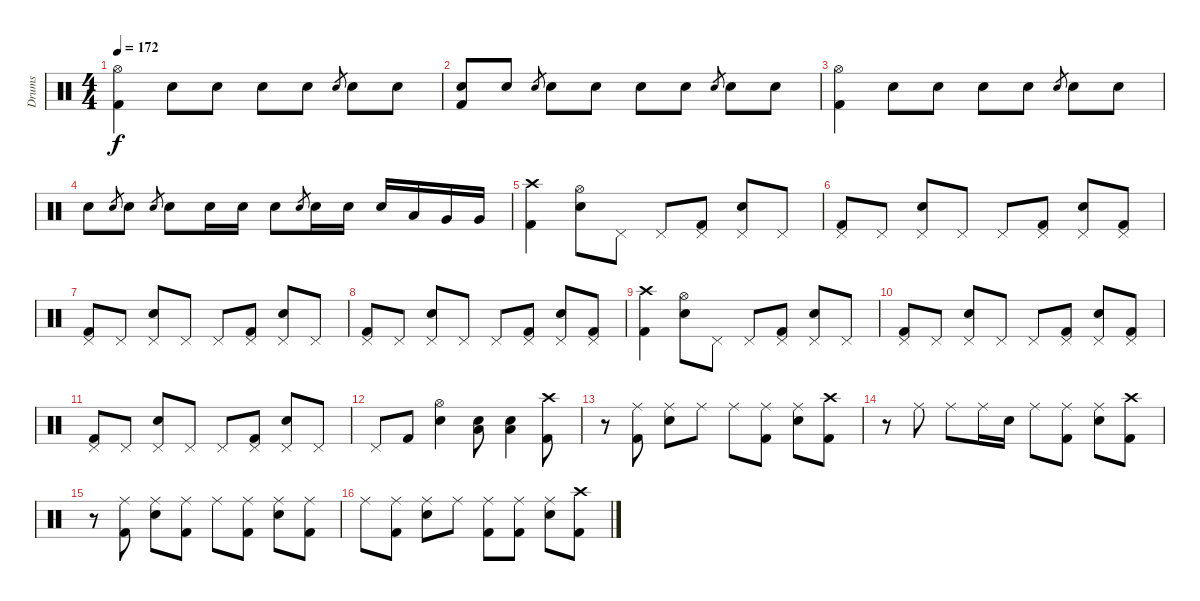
\track ("Drums" "Drums") {instrument percussion}
\staff {score}
\articulation defaults
\ts (4 4)
\tempo 172
\clef neutral
\ks c
("Hi-Hat (open)" "Kick (hit) 2").4{dy f} "Electric Snare (hit)".8 "Electric Snare (hit)".8 "Electric Snare (hit)".8 "Electric Snare (hit)".8 "Electric Snare (hit)".8{gr} "Electric Snare (hit)".8 "Electric Snare (hit)".8 |
("Electric Snare (hit)" "Kick (hit) 2").8 "Electric Snare (hit)".8 "Electric Snare (hit)".8{gr} "Electric Snare (hit)".8 "Electric Snare (hit)".8 "Electric Snare (hit)".8 "Electric Snare (hit)".8 "Electric Snare (hit)".8{gr} "Electric Snare (hit)".8 "Electric Snare (hit)".8 |
("Hi-Hat (open)" "Kick (hit) 2").4 "Electric Snare (hit)".8 "Electric Snare (hit)".8 "Electric Snare (hit)".8 "Electric Snare (hit)".8 "Electric Snare (hit)".8{gr} "Electric Snare (hit)".8 "Electric Snare (hit)".8 |
"Electric Snare (hit)".8 "Electric Snare (hit)".8{gr} "Electric Snare (hit)".8 "Electric Snare (hit)".8{gr} "Electric Snare (hit)".8 "Electric Snare (hit)".16 "Electric Snare (hit)".16 "Electric Snare (hit)".8 "Electric Snare (hit)".8{gr} "Electric Snare (hit)".16 "Electric Snare (hit)".16 "Electric Snare (hit)".16 "Low Tom (hit)".16 "Very Low Tom (hit)".16 "Very Low Tom (hit)".16 |
("Crash high (hit)" "Kick (hit) 2").4 ("Hi-Hat (open)" "Electric Snare (hit)").8 "Pedal Hi-Hat (hit)".8 "Pedal Hi-Hat (hit)".8 ("Pedal Hi-Hat (hit)" "Kick (hit) 2").8 ("Pedal Hi-Hat (hit)" "Electric Snare (hit)").8 "Pedal Hi-Hat (hit)".8 |
("Pedal Hi-Hat (hit)" "Kick (hit) 2").8 "Pedal Hi-Hat (hit)".8 ("Pedal Hi-Hat (hit)" "Electric Snare (hit)").8 "Pedal Hi-Hat (hit)".8 "Pedal Hi-Hat (hit)".8 ("Pedal Hi-Hat (hit)" "Kick (hit) 2").8 ("Pedal Hi-Hat (hit)" "Electric Snare (hit)").8 ("Pedal Hi-Hat (hit)" "Kick (hit) 2").8 |
("Pedal Hi-Hat (hit)" "Kick (hit) 2").8 "Pedal Hi-Hat (hit)".8 ("Pedal Hi-Hat (hit)" "Electric Snare (hit)").8 "Pedal Hi-Hat (hit)".8 "Pedal Hi-Hat (hit)".8 ("Pedal Hi-Hat (hit)" "Kick (hit) 2").8 ("Pedal Hi-Hat (hit)" "Electric Snare (hit)").8 "Pedal Hi-Hat (hit)".8 |
("Pedal Hi-Hat (hit)" "Kick (hit) 2").8 "Pedal Hi-Hat (hit)".8 ("Pedal Hi-Hat (hit)" "Electric Snare (hit)").8 "Pedal Hi-Hat (hit)".8 "Pedal Hi-Hat (hit)".8 ("Pedal Hi-Hat (hit)" "Kick (hit) 2").8 ("Pedal Hi-Hat (hit)" "Electric Snare (hit)").8 ("Pedal Hi-Hat (hit)" "Kick (hit) 2").8 |
("Crash high (hit)" "Kick (hit) 2").4 ("Hi-Hat (open)" "Electric Snare (hit)").8 "Pedal Hi-Hat (hit)".8 "Pedal Hi-Hat (hit)".8 ("Pedal Hi-Hat (hit)" "Kick (hit) 2").8 ("Pedal Hi-Hat (hit)" "Electric Snare (hit)").8 "Pedal Hi-Hat (hit)".8 |
("Pedal Hi-Hat (hit)" "Kick (hit) 2").8 "Pedal Hi-Hat (hit)".8 ("Pedal Hi-Hat (hit)" "Electric Snare (hit)").8 "Pedal Hi-Hat (hit)".8 "Pedal Hi-Hat (hit)".8 ("Pedal Hi-Hat (hit)" "Kick (hit) 2").8 ("Pedal Hi-Hat (hit)" "Electric Snare (hit)").8 ("Pedal Hi-Hat (hit)" "Kick (hit) 2").8 |
("Pedal Hi-Hat (hit)" "Kick (hit) 2").8 "Pedal Hi-Hat (hit)".8 ("Pedal Hi-Hat (hit)" "Electric Snare (hit)").8 "Pedal Hi-Hat (hit)".8 "Pedal Hi-Hat (hit)".8 ("Pedal Hi-Hat (hit)" "Kick (hit) 2").8 ("Pedal Hi-Hat (hit)" "Electric Snare (hit)").8 "Pedal Hi-Hat (hit)".8 |
"Pedal Hi-Hat (hit)".8 "Kick (hit) 2".8 ("Hi-Hat (open)" "Electric Snare (hit)").4 ("Low Tom (hit)" "Electric Snare (hit)").8 ("Low Tom (hit)" "Electric Snare (hit)").4 ("Crash high (hit)" "Kick (hit) 2").8 |
r.8 ("Ride (middle)" "Kick (hit) 2").8 ("Ride (middle)" "Electric Snare (hit)").8 "Ride (middle)".8 "Ride (middle)".8 ("Ride (middle)" "Kick (hit) 2").8 ("Ride (middle)" "Electric Snare (hit)").8 ("Crash high (hit)" "Kick (hit) 2").8 |
r.8 "Ride (middle)".8 "Ride (middle)".8 "Ride (middle)".16 "Electric Snare (hit)".16 "Ride (middle)".8 ("Ride (middle)" "Kick (hit) 2").8 ("Ride (middle)" "Electric Snare (hit)").8 ("Crash high (hit)" "Kick (hit) 2").8 |
r.8 ("Ride (middle)" "Kick (hit) 2").8 ("Ride (middle)" "Electric Snare (hit)").8 ("Ride (middle)" "Kick (hit) 2").8 "Ride (middle)".8 ("Ride (middle)" "Kick (hit) 2").8 ("Ride (middle)" "Electric Snare (hit)").8 ("Ride (middle)" "Kick (hit) 2").8 |
"Ride (middle)".8 ("Ride (middle)" "Kick (hit) 2").8 ("Ride (middle)" "Electric Snare (hit)").8 "Ride (middle)".8 ("Ride (middle)" "Kick (hit) 2").8 ("Ride (middle)" "Kick (hit) 2").8 ("Ride (middle)" "Electric Snare (hit)").8 ("Crash high (hit)" "Kick (hit) 2").8
